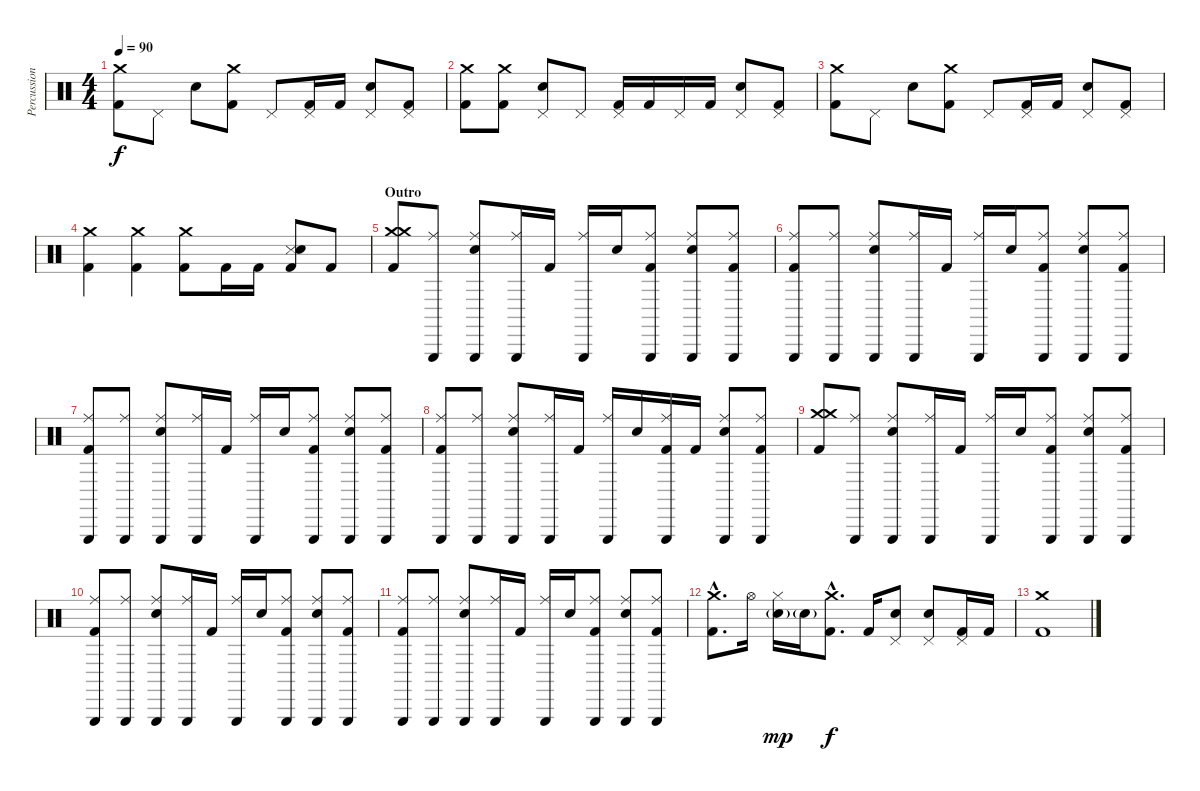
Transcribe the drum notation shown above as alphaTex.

\track ("Percussion" "Percussion") {instrument percussion}
\staff {score}
\articulation defaults
\ts (4 4)
\tempo 90
\clef neutral
\ks c
("Crash medium (hit)" "Kick (hit) 2").8{dy f} "Pedal Hi-Hat (hit)".8 "Electric Snare (hit)".8 ("Crash medium (hit)" "Kick (hit) 2").8 "Pedal Hi-Hat (hit)".8 ("Pedal Hi-Hat (hit)" "Kick (hit) 2").16 "Kick (hit) 2".16 ("Pedal Hi-Hat (hit)" "Electric Snare (hit)").8 ("Pedal Hi-Hat (hit)" "Kick (hit) 2").8 |
("Crash medium (hit)" "Kick (hit) 2").8 ("Crash medium (hit)" "Kick (hit) 2").8 ("Pedal Hi-Hat (hit)" "Electric Snare (hit)").8 "Pedal Hi-Hat (hit)".8 ("Pedal Hi-Hat (hit)" "Kick (hit) 2").16 "Kick (hit) 2".16 "Pedal Hi-Hat (hit)".16 "Kick (hit) 2".16 ("Pedal Hi-Hat (hit)" "Electric Snare (hit)").8 ("Pedal Hi-Hat (hit)" "Kick (hit) 2").8 |
("Crash medium (hit)" "Kick (hit) 2").8 "Pedal Hi-Hat (hit)".8 "Electric Snare (hit)".8 ("Crash medium (hit)" "Kick (hit) 2").8 "Pedal Hi-Hat (hit)".8 ("Pedal Hi-Hat (hit)" "Kick (hit) 2").16 "Kick (hit) 2".16 ("Pedal Hi-Hat (hit)" "Electric Snare (hit)").8 ("Pedal Hi-Hat (hit)" "Kick (hit) 2").8 |
("Crash medium (hit)" "Kick (hit) 2").4 ("Crash medium (hit)" "Kick (hit) 2").4 ("Crash medium (hit)" "Kick (hit) 2").8 "Kick (hit) 2".16 "Kick (hit) 2".16 ("Snare (side stick) 3" "Electric Snare (hit)" "Kick (hit) 2").8 "Kick (hit) 2".8 |
\section ("" "Outro")
("Crash medium (hit)" "Crash medium (hit)" "Kick (hit) 2").8 ("Ride (middle)" "Triangle (hit)").8 ("Ride (middle)" "Triangle (hit)" "Electric Snare (hit)").8 ("Ride (middle)" "Triangle (hit)").16 "Kick (hit) 2".16 ("Ride (middle)" "Triangle (hit)").16 "Electric Snare (hit)".16 ("Ride (middle)" "Triangle (hit)" "Kick (hit) 2").8 ("Ride (middle)" "Triangle (hit)" "Electric Snare (hit)").8 ("Ride (middle)" "Triangle (hit)" "Kick (hit) 2").8 |
("Ride (middle)" "Triangle (hit)" "Kick (hit) 2").8 ("Ride (middle)" "Triangle (hit)").8 ("Ride (middle)" "Triangle (hit)" "Electric Snare (hit)").8 ("Ride (middle)" "Triangle (hit)").16 "Kick (hit) 2".16 ("Ride (middle)" "Triangle (hit)").16 "Electric Snare (hit)".16 ("Ride (middle)" "Triangle (hit)" "Kick (hit) 2").8 ("Ride (middle)" "Triangle (hit)" "Electric Snare (hit)").8 ("Ride (middle)" "Triangle (hit)" "Kick (hit) 2").8 |
("Ride (middle)" "Triangle (hit)" "Kick (hit) 2").8 ("Ride (middle)" "Triangle (hit)").8 ("Ride (middle)" "Triangle (hit)" "Electric Snare (hit)").8 ("Ride (middle)" "Triangle (hit)").16 "Kick (hit) 2".16 ("Ride (middle)" "Triangle (hit)").16 "Electric Snare (hit)".16 ("Ride (middle)" "Triangle (hit)" "Kick (hit) 2").8 ("Ride (middle)" "Triangle (hit)" "Electric Snare (hit)").8 ("Ride (middle)" "Triangle (hit)" "Kick (hit) 2").8 |
("Ride (middle)" "Triangle (hit)" "Kick (hit) 2").8 ("Ride (middle)" "Triangle (hit)").8 ("Ride (middle)" "Triangle (hit)" "Electric Snare (hit)").8 ("Ride (middle)" "Triangle (hit)").16 "Kick (hit) 2".16 ("Ride (middle)" "Triangle (hit)").16 "Electric Snare (hit)".16 ("Ride (middle)" "Triangle (hit)" "Kick (hit) 2").16 "Kick (hit) 2".16 ("Ride (middle)" "Triangle (hit)" "Electric Snare (hit)").8 ("Ride (middle)" "Triangle (hit)" "Kick (hit) 2").8 |
("Crash medium (hit)" "Crash medium (hit)" "Kick (hit) 2").8 ("Ride (middle)" "Triangle (hit)").8 ("Ride (middle)" "Triangle (hit)" "Electric Snare (hit)").8 ("Ride (middle)" "Triangle (hit)").16 "Kick (hit) 2".16 ("Ride (middle)" "Triangle (hit)").16 "Electric Snare (hit)".16 ("Ride (middle)" "Triangle (hit)" "Kick (hit) 2").8 ("Ride (middle)" "Triangle (hit)" "Electric Snare (hit)").8 ("Ride (middle)" "Triangle (hit)" "Kick (hit) 2").8 |
("Ride (middle)" "Triangle (hit)" "Kick (hit) 2").8 ("Ride (middle)" "Triangle (hit)").8 ("Ride (middle)" "Triangle (hit)" "Electric Snare (hit)").8 ("Ride (middle)" "Triangle (hit)").16 "Kick (hit) 2".16 ("Ride (middle)" "Triangle (hit)").16 "Electric Snare (hit)".16 ("Ride (middle)" "Triangle (hit)" "Kick (hit) 2").8 ("Ride (middle)" "Triangle (hit)" "Electric Snare (hit)").8 ("Ride (middle)" "Triangle (hit)" "Kick (hit) 2").8 |
("Ride (middle)" "Triangle (hit)" "Kick (hit) 2").8 ("Ride (middle)" "Triangle (hit)").8 ("Ride (middle)" "Triangle (hit)" "Electric Snare (hit)").8 ("Ride (middle)" "Triangle (hit)").16 "Kick (hit) 2".16 ("Ride (middle)" "Triangle (hit)").16 "Electric Snare (hit)".16 ("Ride (middle)" "Triangle (hit)" "Kick (hit) 2").8 ("Ride (middle)" "Triangle (hit)" "Electric Snare (hit)").8 ("Ride (middle)" "Triangle (hit)" "Kick (hit) 2").8 |
("Crash medium (hit)"{hac} "Kick (hit) 2"{hac}).8{d} "Hi-Hat (open)".16 ("Hi-Hat (closed)" "Electric Snare (hit)"{g}).16{dy mp} "Electric Snare (hit)"{g}.16 ("Crash medium (hit)"{hac} "Kick (hit) 2"{hac}).8{d dy f} "Kick (hit) 2".16 ("Pedal Hi-Hat (hit)" "Electric Snare (hit)").8 ("Pedal Hi-Hat (hit)" "Electric Snare (hit)").8 ("Pedal Hi-Hat (hit)" "Kick (hit) 2").16 "Kick (hit) 2".16 |
("Crash medium (hit)" "Kick (hit) 2").1
